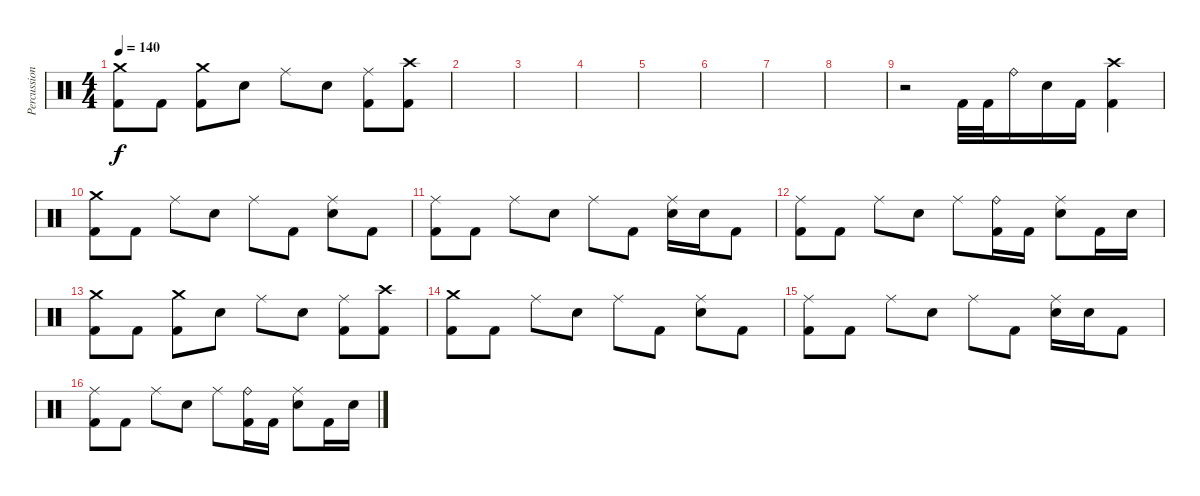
\track ("Percussion" "Percussion") {instrument percussion}
\staff {score}
\articulation defaults
\ts (4 4)
\tempo 140
\clef neutral
\ks c
("Crash medium (hit)" "Kick (hit) 2").8{dy f} "Kick (hit) 2".8 ("Crash medium (hit)" "Kick (hit) 2").8 "Electric Snare (hit)".8 "Ride (middle)".8 "Electric Snare (hit)".8 ("Ride (middle)" "Kick (hit) 2").8 ("Crash high (hit)" "Kick (hit) 2").8 |
|
|
|
|
|
|
|
r.2 "Kick (hit) 2".32 "Kick (hit) 2".32 "Ride (bell)".16 "Electric Snare (hit)".16 "Kick (hit) 2".16 ("Crash high (hit)" "Kick (hit) 2").4 |
("Crash medium (hit)" "Kick (hit) 2").8 "Kick (hit) 2".8 "Ride (middle)".8 "Electric Snare (hit)".8 "Ride (middle)".8 "Kick (hit) 2".8 ("Ride (middle)" "Electric Snare (hit)").8 "Kick (hit) 2".8 |
("Ride (middle)" "Kick (hit) 2").8 "Kick (hit) 2".8 "Ride (middle)".8 "Electric Snare (hit)".8 "Ride (middle)".8 "Kick (hit) 2".8 ("Ride (middle)" "Electric Snare (hit)").16 "Electric Snare (hit)".16 "Kick (hit) 2".8 |
("Ride (middle)" "Kick (hit) 2").8 "Kick (hit) 2".8 "Ride (middle)".8 "Electric Snare (hit)".8 "Ride (middle)".8 ("Ride (bell)" "Kick (hit) 2").16 "Kick (hit) 2".16 ("Ride (middle)" "Electric Snare (hit)").8 "Kick (hit) 2".16 "Electric Snare (hit)".16 |
("Crash medium (hit)" "Kick (hit) 2").8 "Kick (hit) 2".8 ("Crash medium (hit)" "Kick (hit) 2").8 "Electric Snare (hit)".8 "Ride (middle)".8 "Electric Snare (hit)".8 ("Ride (middle)" "Kick (hit) 2").8 ("Crash high (hit)" "Kick (hit) 2").8 |
("Crash medium (hit)" "Kick (hit) 2").8 "Kick (hit) 2".8 "Ride (middle)".8 "Electric Snare (hit)".8 "Ride (middle)".8 "Kick (hit) 2".8 ("Ride (middle)" "Electric Snare (hit)").8 "Kick (hit) 2".8 |
("Ride (middle)" "Kick (hit) 2").8 "Kick (hit) 2".8 "Ride (middle)".8 "Electric Snare (hit)".8 "Ride (middle)".8 "Kick (hit) 2".8 ("Ride (middle)" "Electric Snare (hit)").16 "Electric Snare (hit)".16 "Kick (hit) 2".8 |
("Ride (middle)" "Kick (hit) 2").8 "Kick (hit) 2".8 "Ride (middle)".8 "Electric Snare (hit)".8 "Ride (middle)".8 ("Ride (bell)" "Kick (hit) 2").16 "Kick (hit) 2".16 ("Ride (middle)" "Electric Snare (hit)").8 "Kick (hit) 2".16 "Electric Snare (hit)".16
